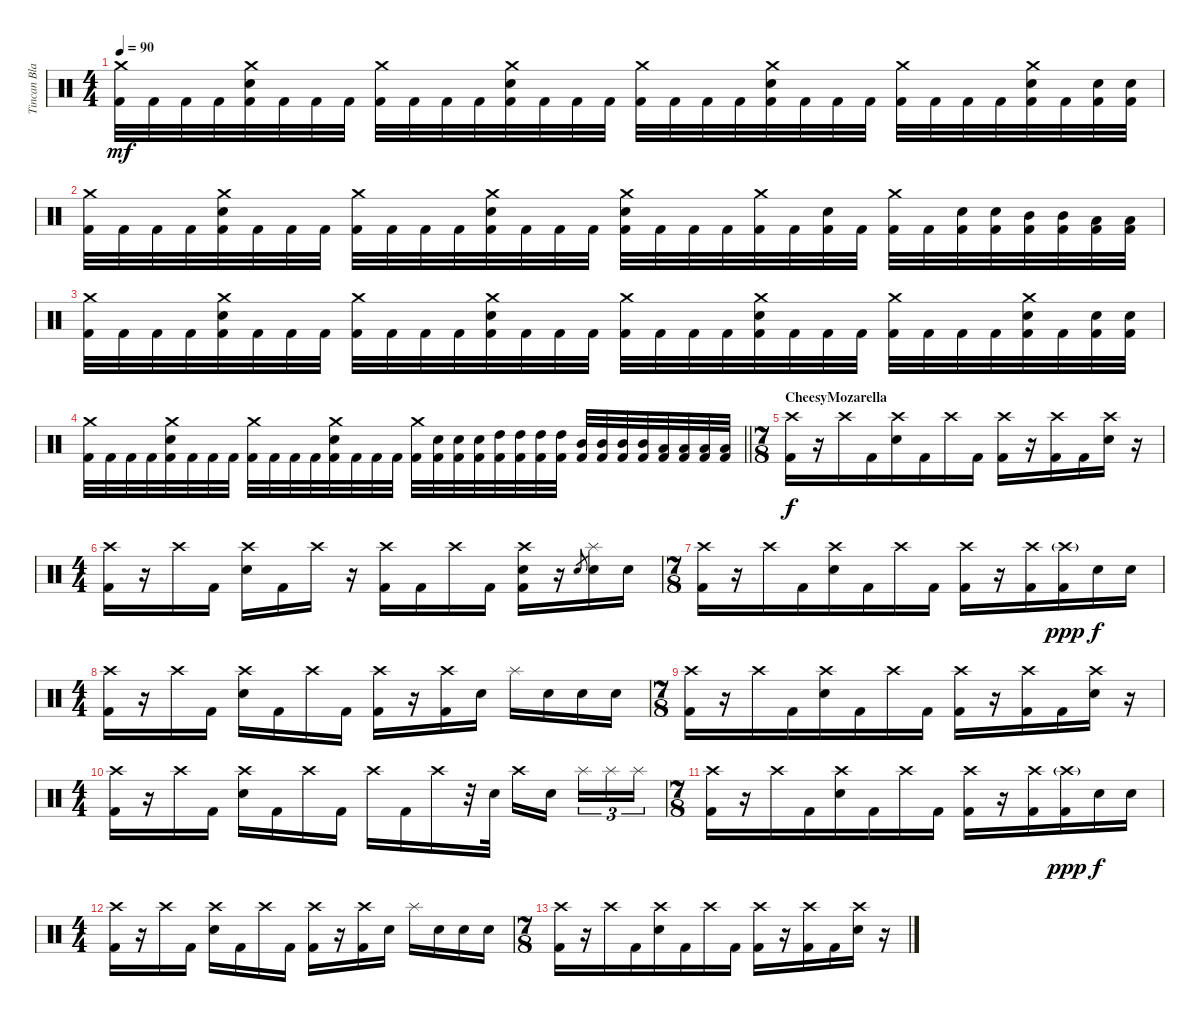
\track ("Tincan Blaster" "Tincan Bla") {instrument percussion}
\staff {score}
\articulation defaults
\ts (4 4)
\tempo 90
\clef neutral
\ks c
("Crash medium (hit)" "Kick (hit) 2").32{dy mf} "Kick (hit) 2".32 "Kick (hit) 2".32 "Kick (hit) 2".32 ("Crash medium (hit)" "Electric Snare (hit)" "Kick (hit) 2").32 "Kick (hit) 2".32 "Kick (hit) 2".32 "Kick (hit) 2".32 ("Crash medium (hit)" "Kick (hit) 2").32 "Kick (hit) 2".32 "Kick (hit) 2".32 "Kick (hit) 2".32 ("Crash medium (hit)" "Electric Snare (hit)" "Kick (hit) 2").32 "Kick (hit) 2".32 "Kick (hit) 2".32 "Kick (hit) 2".32 ("Crash medium (hit)" "Kick (hit) 2").32 "Kick (hit) 2".32 "Kick (hit) 2".32 "Kick (hit) 2".32 ("Crash medium (hit)" "Electric Snare (hit)" "Kick (hit) 2").32 "Kick (hit) 2".32 "Kick (hit) 2".32 "Kick (hit) 2".32 ("Crash medium (hit)" "Kick (hit) 2").32 "Kick (hit) 2".32 "Kick (hit) 2".32 "Kick (hit) 2".32 ("Crash medium (hit)" "Electric Snare (hit)" "Kick (hit) 2").32 "Kick (hit) 2".32 ("Electric Snare (hit)" "Kick (hit) 2").32 ("Electric Snare (hit)" "Kick (hit) 2").32 |
("Crash medium (hit)" "Kick (hit) 2").32 "Kick (hit) 2".32 "Kick (hit) 2".32 "Kick (hit) 2".32 ("Crash medium (hit)" "Electric Snare (hit)" "Kick (hit) 2").32 "Kick (hit) 2".32 "Kick (hit) 2".32 "Kick (hit) 2".32 ("Crash medium (hit)" "Kick (hit) 2").32 "Kick (hit) 2".32 "Kick (hit) 2".32 "Kick (hit) 2".32 ("Crash medium (hit)" "Electric Snare (hit)" "Kick (hit) 2").32 "Kick (hit) 2".32 "Kick (hit) 2".32 "Kick (hit) 2".32 ("Crash medium (hit)" "Electric Snare (hit)" "Kick (hit) 2").32 "Kick (hit) 2".32 "Kick (hit) 2".32 "Kick (hit) 2".32 ("Crash medium (hit)" "Kick (hit) 2").32 "Kick (hit) 2".32 ("Electric Snare (hit)" "Kick (hit) 2").32 "Kick (hit) 2".32 ("Crash medium (hit)" "Kick (hit) 2").32 "Kick (hit) 2".32 ("Electric Snare (hit)" "Kick (hit) 2").32 ("Electric Snare (hit)" "Kick (hit) 2").32 ("Mid Tom (hit)" "Kick (hit) 2").32 ("Mid Tom (hit)" "Kick (hit) 2").32 ("Low Tom (hit)" "Kick (hit) 2").32 ("Low Tom (hit)" "Kick (hit) 2").32 |
("Crash medium (hit)" "Kick (hit) 2").32 "Kick (hit) 2".32 "Kick (hit) 2".32 "Kick (hit) 2".32 ("Crash medium (hit)" "Electric Snare (hit)" "Kick (hit) 2").32 "Kick (hit) 2".32 "Kick (hit) 2".32 "Kick (hit) 2".32 ("Crash medium (hit)" "Kick (hit) 2").32 "Kick (hit) 2".32 "Kick (hit) 2".32 "Kick (hit) 2".32 ("Crash medium (hit)" "Electric Snare (hit)" "Kick (hit) 2").32 "Kick (hit) 2".32 "Kick (hit) 2".32 "Kick (hit) 2".32 ("Crash medium (hit)" "Kick (hit) 2").32 "Kick (hit) 2".32 "Kick (hit) 2".32 "Kick (hit) 2".32 ("Crash medium (hit)" "Electric Snare (hit)" "Kick (hit) 2").32 "Kick (hit) 2".32 "Kick (hit) 2".32 "Kick (hit) 2".32 ("Crash medium (hit)" "Kick (hit) 2").32 "Kick (hit) 2".32 "Kick (hit) 2".32 "Kick (hit) 2".32 ("Crash medium (hit)" "Electric Snare (hit)" "Kick (hit) 2").32 "Kick (hit) 2".32 ("Electric Snare (hit)" "Kick (hit) 2").32 ("Electric Snare (hit)" "Kick (hit) 2").32 |
\barLineRight lightlight
("Crash medium (hit)" "Kick (hit) 2").32 "Kick (hit) 2".32 "Kick (hit) 2".32 "Kick (hit) 2".32 ("Crash medium (hit)" "Electric Snare (hit)" "Kick (hit) 2").32 "Kick (hit) 2".32 "Kick (hit) 2".32 "Kick (hit) 2".32 ("Crash medium (hit)" "Kick (hit) 2").32 "Kick (hit) 2".32 "Kick (hit) 2".32 "Kick (hit) 2".32 ("Crash medium (hit)" "Electric Snare (hit)" "Kick (hit) 2").32 "Kick (hit) 2".32 "Kick (hit) 2".32 "Kick (hit) 2".32 ("Crash medium (hit)" "Kick (hit) 2").32 ("Electric Snare (hit)" "Kick (hit) 2").32 ("Electric Snare (hit)" "Kick (hit) 2").32 ("Electric Snare (hit)" "Kick (hit) 2").32 ("High Tom (hit)" "Kick (hit) 2").32 ("High Tom (hit)" "Kick (hit) 2").32 ("High Tom (hit)" "Kick (hit) 2").32 ("High Tom (hit)" "Kick (hit) 2").32 ("Mid Tom (hit)" "Kick (hit) 2").32 ("Mid Tom (hit)" "Kick (hit) 2").32 ("Mid Tom (hit)" "Kick (hit) 2").32 ("Mid Tom (hit)" "Kick (hit) 2").32 ("Low Tom (hit)" "Kick (hit) 2").32 ("Low Tom (hit)" "Kick (hit) 2").32 ("Low Tom (hit)" "Kick (hit) 2").32 ("Low Tom (hit)" "Kick (hit) 2").32 |
\ts (7 8)
\section ("" "CheesyMozarella")
("Crash high (hit)" "Kick (hit) 2").16{dy f} r.16 "Crash high (hit)".16 "Kick (hit) 2".16 ("Crash high (hit)" "Electric Snare (hit)").16 "Kick (hit) 2".16 "Crash high (hit)".16 "Kick (hit) 2".16 ("Crash high (hit)" "Kick (hit) 2").16 r.16 ("Crash high (hit)" "Kick (hit) 2").16 "Kick (hit) 2".16 ("Crash high (hit)" "Electric Snare (hit)").16 r.16 |
\ts (4 4)
("Crash high (hit)" "Kick (hit) 2").16 r.16 "Crash high (hit)".16 "Kick (hit) 2".16 ("Crash high (hit)" "Electric Snare (hit)").16 "Kick (hit) 2".16 "Crash high (hit)".16 r.16 ("Crash high (hit)" "Kick (hit) 2").16 "Kick (hit) 2".16 "Crash high (hit)".16 "Kick (hit) 2".16 ("Crash high (hit)" "Electric Snare (hit)" "Kick (hit) 2").16 r.16 "Electric Snare (hit)".8{gr} ("Splash (hit)" "Electric Snare (hit)").16 "Electric Snare (hit)".16 |
\ts (7 8)
("Crash high (hit)" "Kick (hit) 2").16 r.16 "Crash high (hit)".16 "Kick (hit) 2".16 ("Crash high (hit)" "Electric Snare (hit)").16 "Kick (hit) 2".16 "Crash high (hit)".16 "Kick (hit) 2".16 ("Crash high (hit)" "Kick (hit) 2").16 r.16 ("Crash high (hit)" "Kick (hit) 2").16 ("Crash high (hit)"{g} "Kick (hit) 2").16{dy ppp} "Electric Snare (hit)".16{dy f} "Electric Snare (hit)".16 |
\ts (4 4)
("Crash high (hit)" "Kick (hit) 2").16 r.16 "Crash high (hit)".16 "Kick (hit) 2".16 ("Crash high (hit)" "Electric Snare (hit)").16 "Kick (hit) 2".16 "Crash high (hit)".16 "Kick (hit) 2".16 ("Crash high (hit)" "Kick (hit) 2").16 r.16 ("Crash high (hit)" "Kick (hit) 2").16 "Electric Snare (hit)".16 "Splash (hit)".16 "Electric Snare (hit)".16 "Electric Snare (hit)".16 "Electric Snare (hit)".16 |
\ts (7 8)
("Crash high (hit)" "Kick (hit) 2").16 r.16 "Crash high (hit)".16 "Kick (hit) 2".16 ("Crash high (hit)" "Electric Snare (hit)").16 "Kick (hit) 2".16 "Crash high (hit)".16 "Kick (hit) 2".16 ("Crash high (hit)" "Kick (hit) 2").16 r.16 ("Crash high (hit)" "Kick (hit) 2").16 "Kick (hit) 2".16 ("Crash high (hit)" "Electric Snare (hit)").16 r.16 |
\ts (4 4)
("Crash high (hit)" "Kick (hit) 2").16 r.16 "Crash high (hit)".16 "Kick (hit) 2".16 ("Crash high (hit)" "Electric Snare (hit)").16 "Kick (hit) 2".16 "Crash high (hit)".16 "Kick (hit) 2".16 "Crash high (hit)".16 "Kick (hit) 2".16 "Crash high (hit)".16 r.32 "Electric Snare (hit)".32 "Crash high (hit)".16 "Electric Snare (hit)".16{beam splitsecondary} "Splash (hit)".16{tu (3 2)} "Splash (hit)".16{tu (3 2)} "Splash (hit)".16{tu (3 2)} |
\ts (7 8)
("Crash high (hit)" "Kick (hit) 2").16 r.16 "Crash high (hit)".16 "Kick (hit) 2".16 ("Crash high (hit)" "Electric Snare (hit)").16 "Kick (hit) 2".16 "Crash high (hit)".16 "Kick (hit) 2".16 ("Crash high (hit)" "Kick (hit) 2").16 r.16 ("Crash high (hit)" "Kick (hit) 2").16 ("Crash high (hit)"{g} "Kick (hit) 2").16{dy ppp} "Electric Snare (hit)".16{dy f} "Electric Snare (hit)".16 |
\ts (4 4)
("Crash high (hit)" "Kick (hit) 2").16 r.16 "Crash high (hit)".16 "Kick (hit) 2".16 ("Crash high (hit)" "Electric Snare (hit)").16 "Kick (hit) 2".16 "Crash high (hit)".16 "Kick (hit) 2".16 ("Crash high (hit)" "Kick (hit) 2").16 r.16 ("Crash high (hit)" "Kick (hit) 2").16 "Electric Snare (hit)".16 "Splash (hit)".16 "Electric Snare (hit)".16 "Electric Snare (hit)".16 "Electric Snare (hit)".16 |
\ts (7 8)
("Crash high (hit)" "Kick (hit) 2").16 r.16 "Crash high (hit)".16 "Kick (hit) 2".16 ("Crash high (hit)" "Electric Snare (hit)").16 "Kick (hit) 2".16 "Crash high (hit)".16 "Kick (hit) 2".16 ("Crash high (hit)" "Kick (hit) 2").16 r.16 ("Crash high (hit)" "Kick (hit) 2").16 "Kick (hit) 2".16 ("Crash high (hit)" "Electric Snare (hit)").16 r.16
